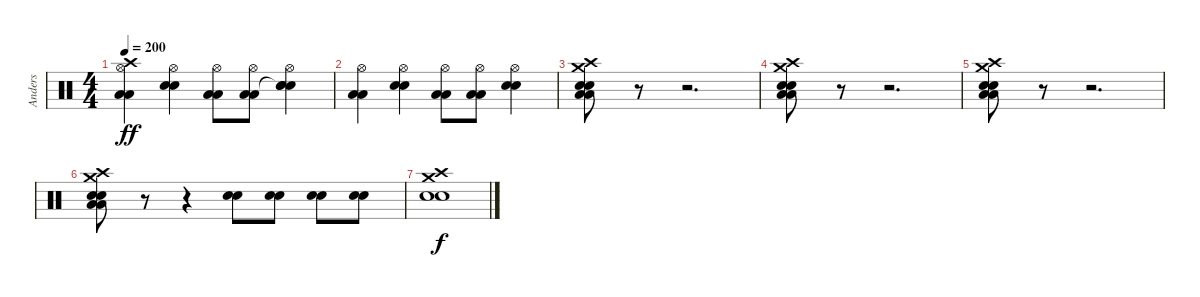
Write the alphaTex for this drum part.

\track ("Anders" "Anders") {instrument percussion}
\staff {score}
\articulation defaults
\ts (4 4)
\tempo 200
\clef neutral
\ks c
("Hi-Hat (open)" "Crash high (hit)" "Low Floor Tom (hit)" "Low Floor Tom (hit)").4{dy ff} ("Hi-Hat (open)" "Electric Snare (hit)" "Electric Snare (hit)").4 ("Hi-Hat (open)" "Low Floor Tom (hit)" "Low Floor Tom (hit)").8 ("Hi-Hat (open)" "Low Floor Tom (hit)" "Low Floor Tom (hit)").8 ("Hi-Hat (open)" "Snare (hit)"{t} "Electric Snare (hit)" "Electric Snare (hit)").4 |
("Hi-Hat (open)" "Low Floor Tom (hit)" "Low Floor Tom (hit)").4 ("Hi-Hat (open)" "Electric Snare (hit)" "Electric Snare (hit)").4 ("Hi-Hat (open)" "Low Floor Tom (hit)" "Low Floor Tom (hit)").8 ("Hi-Hat (open)" "Low Floor Tom (hit)" "Low Floor Tom (hit)").8 ("Hi-Hat (open)" "Electric Snare (hit)" "Electric Snare (hit)").4 |
("Crash high (hit)" "Crash medium (hit)" "Electric Snare (hit)" "Electric Snare (hit)" "Low Floor Tom (hit)" "Low Floor Tom (hit)").8 r.8 r.2{d} |
("Crash high (hit)" "Crash medium (hit)" "Electric Snare (hit)" "Electric Snare (hit)" "Low Floor Tom (hit)" "Low Floor Tom (hit)").8 r.8 r.2{d} |
("Crash high (hit)" "Crash medium (hit)" "Electric Snare (hit)" "Electric Snare (hit)" "Low Floor Tom (hit)" "Low Floor Tom (hit)").8 r.8 r.2{d} |
("Crash high (hit)" "Crash medium (hit)" "Electric Snare (hit)" "Electric Snare (hit)" "Low Floor Tom (hit)" "Low Floor Tom (hit)").8 r.8 r.4 ("Electric Snare (hit)" "Electric Snare (hit)").8 ("Electric Snare (hit)" "Electric Snare (hit)").8 ("Electric Snare (hit)" "Electric Snare (hit)").8 ("Electric Snare (hit)" "Electric Snare (hit)").8 |
("Crash medium (hit)" "Crash high (hit)" "Electric Snare (hit)" "Electric Snare (hit)").1{dy f}
